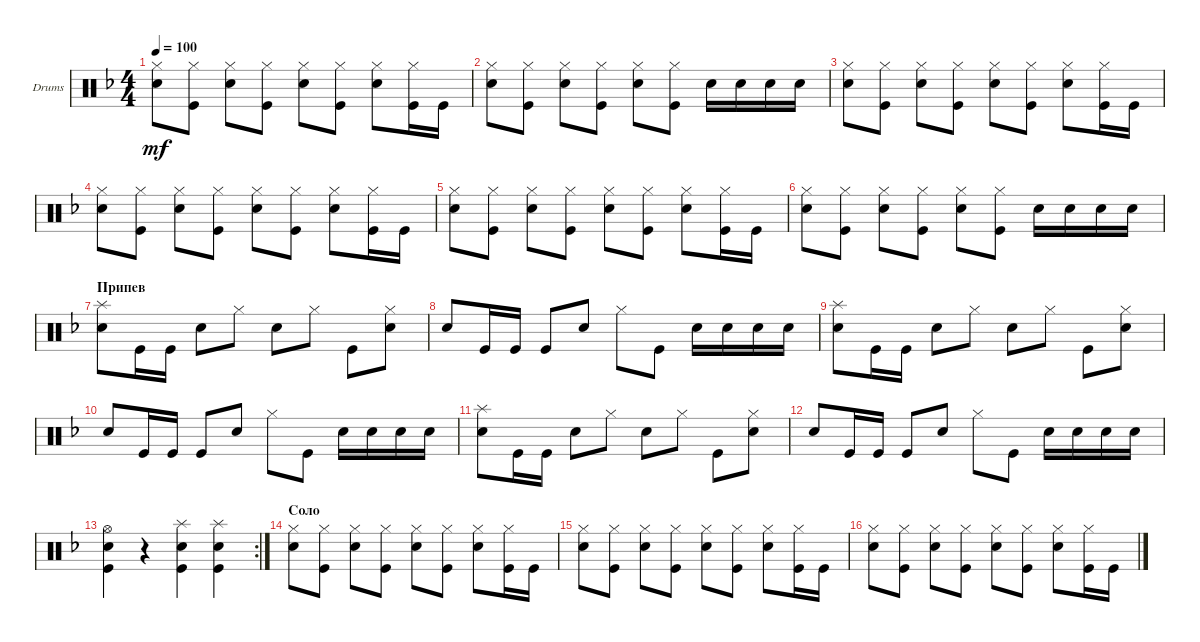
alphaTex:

\bracketExtendMode groupsimilarinstruments
\firstSystemTrackNameOrientation horizontal
\otherSystemsTrackNameOrientation horizontal
\track ("БАРАБАНЫ" "Drums") {solo instrument percussion}
\staff {score}
\articulation defaults
\ts (4 4)
\tempo 100
\clef neutral
\ks dminor
("Snare (hit) 2" "Hi-Hat (closed)").8{dy mf} ("Hi-Hat (closed)" "Kick (hit)").8 ("Snare (hit) 2" "Hi-Hat (closed)").8 ("Hi-Hat (closed)" "Kick (hit)").8 ("Snare (hit) 2" "Hi-Hat (closed)").8 ("Hi-Hat (closed)" "Kick (hit)").8 ("Snare (hit) 2" "Hi-Hat (closed)").8 ("Hi-Hat (closed)" "Kick (hit)").16 "Kick (hit)".16 |
("Snare (hit) 2" "Hi-Hat (closed)").8 ("Hi-Hat (closed)" "Kick (hit)").8 ("Snare (hit) 2" "Hi-Hat (closed)").8 ("Hi-Hat (closed)" "Kick (hit)").8 ("Snare (hit) 2" "Hi-Hat (closed)").8 ("Kick (hit)" "Hi-Hat (closed)").8 "Snare (hit) 2".16 "Snare (hit) 2".16 "Snare (hit) 2".16 "Snare (hit) 2".16 |
("Snare (hit) 2" "Hi-Hat (closed)").8 ("Hi-Hat (closed)" "Kick (hit)").8 ("Snare (hit) 2" "Hi-Hat (closed)").8 ("Hi-Hat (closed)" "Kick (hit)").8 ("Snare (hit) 2" "Hi-Hat (closed)").8 ("Hi-Hat (closed)" "Kick (hit)").8 ("Snare (hit) 2" "Hi-Hat (closed)").8 ("Hi-Hat (closed)" "Kick (hit)").16 "Kick (hit)".16 |
("Snare (hit) 2" "Hi-Hat (closed)").8 ("Hi-Hat (closed)" "Kick (hit)").8 ("Snare (hit) 2" "Hi-Hat (closed)").8 ("Hi-Hat (closed)" "Kick (hit)").8 ("Snare (hit) 2" "Hi-Hat (closed)").8 ("Hi-Hat (closed)" "Kick (hit)").8 ("Snare (hit) 2" "Hi-Hat (closed)").8 ("Hi-Hat (closed)" "Kick (hit)").16 "Kick (hit)".16 |
("Snare (hit) 2" "Hi-Hat (closed)").8 ("Hi-Hat (closed)" "Kick (hit)").8 ("Snare (hit) 2" "Hi-Hat (closed)").8 ("Hi-Hat (closed)" "Kick (hit)").8 ("Snare (hit) 2" "Hi-Hat (closed)").8 ("Hi-Hat (closed)" "Kick (hit)").8 ("Snare (hit) 2" "Hi-Hat (closed)").8 ("Hi-Hat (closed)" "Kick (hit)").16 "Kick (hit)".16 |
("Snare (hit) 2" "Hi-Hat (closed)").8 ("Hi-Hat (closed)" "Kick (hit)").8 ("Snare (hit) 2" "Hi-Hat (closed)").8 ("Hi-Hat (closed)" "Kick (hit)").8 ("Snare (hit) 2" "Hi-Hat (closed)").8 ("Kick (hit)" "Hi-Hat (closed)").8 "Snare (hit) 2".16 "Snare (hit) 2".16 "Snare (hit) 2".16 "Snare (hit) 2".16 |
\section ("" "Припев")
("Splash (hit)" "Snare (hit) 2").8 "Kick (hit)".16 "Kick (hit)".16 "Snare (hit) 2".8 "Hi-Hat (closed)".8 "Snare (hit) 2".8 "Hi-Hat (closed)".8 "Kick (hit)".8 ("Hi-Hat (closed)" "Snare (hit) 2").8 |
"Snare (hit) 2".8 "Kick (hit)".16 "Kick (hit)".16 "Kick (hit)".8 "Snare (hit) 2".8 "Hi-Hat (closed)".8 "Kick (hit)".8 "Snare (hit) 2".16 "Snare (hit) 2".16 "Snare (hit) 2".16 "Snare (hit) 2".16 |
("Splash (hit)" "Snare (hit) 2").8 "Kick (hit)".16 "Kick (hit)".16 "Snare (hit) 2".8 "Hi-Hat (closed)".8 "Snare (hit) 2".8 "Hi-Hat (closed)".8 "Kick (hit)".8 ("Hi-Hat (closed)" "Snare (hit) 2").8 |
"Snare (hit) 2".8 "Kick (hit)".16 "Kick (hit)".16 "Kick (hit)".8 "Snare (hit) 2".8 "Hi-Hat (closed)".8 "Kick (hit)".8 "Snare (hit) 2".16 "Snare (hit) 2".16 "Snare (hit) 2".16 "Snare (hit) 2".16 |
("Splash (hit)" "Snare (hit) 2").8 "Kick (hit)".16 "Kick (hit)".16 "Snare (hit) 2".8 "Hi-Hat (closed)".8 "Snare (hit) 2".8 "Hi-Hat (closed)".8 "Kick (hit)".8 ("Hi-Hat (closed)" "Snare (hit) 2").8 |
"Snare (hit) 2".8 "Kick (hit)".16 "Kick (hit)".16 "Kick (hit)".8 "Snare (hit) 2".8 "Hi-Hat (closed)".8 "Kick (hit)".8 "Snare (hit) 2".16 "Snare (hit) 2".16 "Snare (hit) 2".16 "Snare (hit) 2".16 |
\rc 2
("Snare (hit) 2" "Kick (hit)" "Hi-Hat (open)").4 r.4 ("Kick (hit)" "Snare (hit) 2" "Splash (hit)").4 ("Kick (hit)" "Snare (hit) 2" "Splash (hit)").4 |
\section ("" "Соло")
("Snare (hit) 2" "Hi-Hat (closed)").8 ("Hi-Hat (closed)" "Kick (hit)").8 ("Snare (hit) 2" "Hi-Hat (closed)").8 ("Hi-Hat (closed)" "Kick (hit)").8 ("Snare (hit) 2" "Hi-Hat (closed)").8 ("Hi-Hat (closed)" "Kick (hit)").8 ("Snare (hit) 2" "Hi-Hat (closed)").8 ("Hi-Hat (closed)" "Kick (hit)").16 "Kick (hit)".16 |
("Snare (hit) 2" "Hi-Hat (closed)").8 ("Hi-Hat (closed)" "Kick (hit)").8 ("Snare (hit) 2" "Hi-Hat (closed)").8 ("Hi-Hat (closed)" "Kick (hit)").8 ("Snare (hit) 2" "Hi-Hat (closed)").8 ("Hi-Hat (closed)" "Kick (hit)").8 ("Snare (hit) 2" "Hi-Hat (closed)").8 ("Hi-Hat (closed)" "Kick (hit)").16 "Kick (hit)".16 |
("Snare (hit) 2" "Hi-Hat (closed)").8 ("Hi-Hat (closed)" "Kick (hit)").8 ("Snare (hit) 2" "Hi-Hat (closed)").8 ("Hi-Hat (closed)" "Kick (hit)").8 ("Snare (hit) 2" "Hi-Hat (closed)").8 ("Hi-Hat (closed)" "Kick (hit)").8 ("Snare (hit) 2" "Hi-Hat (closed)").8 ("Hi-Hat (closed)" "Kick (hit)").16 "Kick (hit)".16
